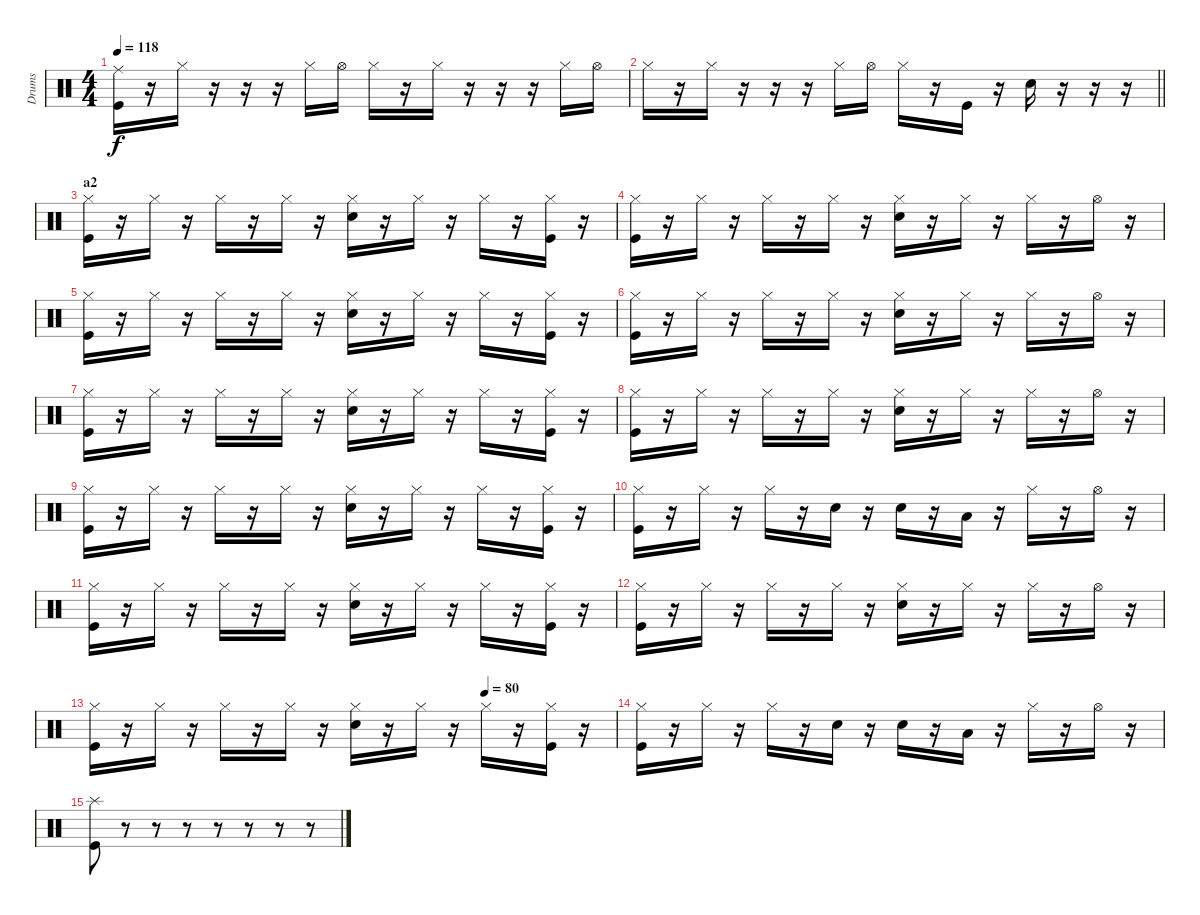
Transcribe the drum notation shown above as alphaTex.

\track ("Drums" "Drums") {instrument percussion}
\staff {score}
\articulation defaults
\ts (4 4)
\tempo 118
\clef neutral
\ks c
("Ride (middle)" "Kick (hit)").16{dy f} r.16 "Hi-Hat (closed)".16 r.16 r.16 r.16 "Hi-Hat (closed)".16 "Hi-Hat (open)".16 "Hi-Hat (closed)".16 r.16 "Hi-Hat (closed)".16 r.16 r.16 r.16 "Hi-Hat (closed)".16 "Hi-Hat (open)".16 |
\barLineRight lightlight "Hi-Hat (closed)".16
r.16 "Hi-Hat (closed)".16 r.16 r.16 r.16 "Hi-Hat (closed)".16 "Hi-Hat (open)".16 "Hi-Hat (closed)".16 r.16 "Kick (hit)".16 r.16 "Snare (hit) 2".16 r.16 r.16 r.16 |
\section ("" "a2")
("Hi-Hat (closed)" "Kick (hit)").16 r.16 "Hi-Hat (closed)".16 r.16 "Hi-Hat (closed)".16 r.16 "Hi-Hat (closed)".16 r.16 ("Hi-Hat (closed)" "Snare (hit) 2").16 r.16 "Hi-Hat (closed)".16 r.16 "Hi-Hat (closed)".16 r.16 ("Hi-Hat (closed)" "Kick (hit)").16 r.16 |
("Hi-Hat (closed)" "Kick (hit)").16 r.16 "Hi-Hat (closed)".16 r.16 "Hi-Hat (closed)".16 r.16 "Hi-Hat (closed)".16 r.16 ("Hi-Hat (closed)" "Snare (hit) 2").16 r.16 "Hi-Hat (closed)".16 r.16 "Hi-Hat (closed)".16 r.16 "Hi-Hat (open)".16 r.16 |
("Hi-Hat (closed)" "Kick (hit)").16 r.16 "Hi-Hat (closed)".16 r.16 "Hi-Hat (closed)".16 r.16 "Hi-Hat (closed)".16 r.16 ("Hi-Hat (closed)" "Snare (hit) 2").16 r.16 "Hi-Hat (closed)".16 r.16 "Hi-Hat (closed)".16 r.16 ("Hi-Hat (closed)" "Kick (hit)").16 r.16 |
("Hi-Hat (closed)" "Kick (hit)").16 r.16 "Hi-Hat (closed)".16 r.16 "Hi-Hat (closed)".16 r.16 "Hi-Hat (closed)".16 r.16 ("Hi-Hat (closed)" "Snare (hit) 2").16 r.16 "Hi-Hat (closed)".16 r.16 "Hi-Hat (closed)".16 r.16 "Hi-Hat (open)".16 r.16 |
("Hi-Hat (closed)" "Kick (hit)").16 r.16 "Hi-Hat (closed)".16 r.16 "Hi-Hat (closed)".16 r.16 "Hi-Hat (closed)".16 r.16 ("Hi-Hat (closed)" "Snare (hit) 2").16 r.16 "Hi-Hat (closed)".16 r.16 "Hi-Hat (closed)".16 r.16 ("Hi-Hat (closed)" "Kick (hit)").16 r.16 |
("Hi-Hat (closed)" "Kick (hit)").16 r.16 "Hi-Hat (closed)".16 r.16 "Hi-Hat (closed)".16 r.16 "Hi-Hat (closed)".16 r.16 ("Hi-Hat (closed)" "Snare (hit) 2").16 r.16 "Hi-Hat (closed)".16 r.16 "Hi-Hat (closed)".16 r.16 "Hi-Hat (open)".16 r.16 |
("Hi-Hat (closed)" "Kick (hit)").16 r.16 "Hi-Hat (closed)".16 r.16 "Hi-Hat (closed)".16 r.16 "Hi-Hat (closed)".16 r.16 ("Hi-Hat (closed)" "Snare (hit) 2").16 r.16 "Hi-Hat (closed)".16 r.16 "Hi-Hat (closed)".16 r.16 ("Hi-Hat (closed)" "Kick (hit)").16 r.16 |
("Hi-Hat (closed)" "Kick (hit)").16 r.16 "Hi-Hat (closed)".16 r.16 "Hi-Hat (closed)".16 r.16 "Snare (hit) 2".16 r.16 "Snare (hit) 2".16 r.16 "Low Tom (hit)".16 r.16 "Hi-Hat (closed)".16 r.16 "Hi-Hat (open)".16 r.16 |
("Hi-Hat (closed)" "Kick (hit)").16 r.16 "Hi-Hat (closed)".16 r.16 "Hi-Hat (closed)".16 r.16 "Hi-Hat (closed)".16 r.16 ("Hi-Hat (closed)" "Snare (hit) 2").16 r.16 "Hi-Hat (closed)".16 r.16 "Hi-Hat (closed)".16 r.16 ("Hi-Hat (closed)" "Kick (hit)").16 r.16 |
("Hi-Hat (closed)" "Kick (hit)").16 r.16 "Hi-Hat (closed)".16 r.16 "Hi-Hat (closed)".16 r.16 "Hi-Hat (closed)".16 r.16 ("Hi-Hat (closed)" "Snare (hit) 2").16 r.16 "Hi-Hat (closed)".16 r.16 "Hi-Hat (closed)".16 r.16 "Hi-Hat (open)".16 r.16 |
\tempo (80 0.75)
("Hi-Hat (closed)" "Kick (hit)").16 r.16 "Hi-Hat (closed)".16 r.16 "Hi-Hat (closed)".16 r.16 "Hi-Hat (closed)".16 r.16 ("Hi-Hat (closed)" "Snare (hit) 2").16 r.16 "Hi-Hat (closed)".16 r.16 "Hi-Hat (closed)".16 r.16 ("Hi-Hat (closed)" "Kick (hit)").16 r.16 |
("Hi-Hat (closed)" "Kick (hit)").16 r.16 "Hi-Hat (closed)".16 r.16 "Hi-Hat (closed)".16 r.16 "Snare (hit) 2".16 r.16 "Snare (hit) 2".16 r.16 "Low Tom (hit)".16 r.16 "Hi-Hat (closed)".16 r.16 "Hi-Hat (open)".16 r.16 |
("Kick (hit)" "Splash (hit)").8 r.8 r.8 r.8 r.8 r.8 r.8 r.8
